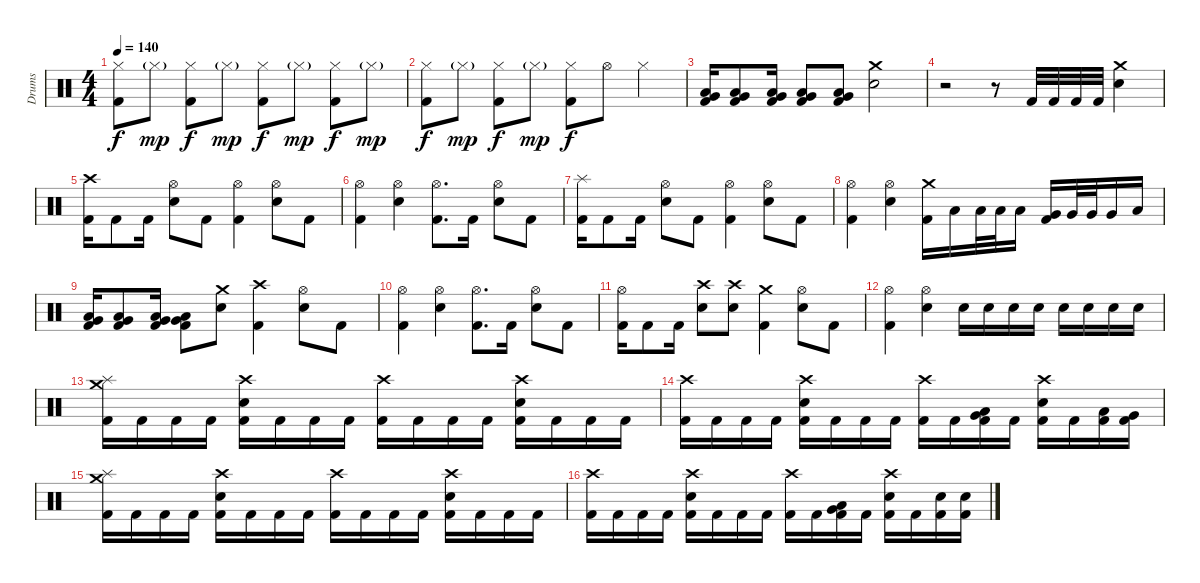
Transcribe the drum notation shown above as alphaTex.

\track ("Drums" "Drums") {instrument percussion}
\staff {score}
\articulation defaults
\ts (4 4)
\tempo 140
\clef neutral
\ks c
("Hi-Hat (closed)" "Kick (hit) 2").8{dy f} "Hi-Hat (closed)"{g}.8{dy mp} ("Hi-Hat (closed)" "Kick (hit) 2").8{dy f} "Hi-Hat (closed)"{g}.8{dy mp} ("Hi-Hat (closed)" "Kick (hit) 2").8{dy f} "Hi-Hat (closed)"{g}.8{dy mp} ("Hi-Hat (closed)" "Kick (hit) 2").8{dy f} "Hi-Hat (closed)"{g}.8{dy mp} |
("Hi-Hat (closed)" "Kick (hit) 2").8{dy f} "Hi-Hat (closed)"{g}.8{dy mp} ("Hi-Hat (closed)" "Kick (hit) 2").8{dy f} "Hi-Hat (closed)"{g}.8{dy mp} ("Hi-Hat (closed)" "Kick (hit) 2").8{dy f} "Hi-Hat (open)".8 "Hi-Hat (closed)".4 |
("Low Floor Tom (hit)" "Very Low Tom (hit)" "Kick (hit) 2").16 ("Low Floor Tom (hit)" "Very Low Tom (hit)" "Kick (hit) 2").8 ("Low Floor Tom (hit)" "Very Low Tom (hit)" "Kick (hit) 2").16 ("Low Floor Tom (hit)" "Very Low Tom (hit)" "Kick (hit) 2").8 ("Low Floor Tom (hit)" "Very Low Tom (hit)" "Kick (hit) 2").8 ("Crash medium (hit)" "Electric Snare (hit)").2 |
r.2 r.8 "Kick (hit) 2".32 "Kick (hit) 2".32 "Kick (hit) 2".32 "Kick (hit) 2".32 ("Crash medium (hit)" "Electric Snare (hit)").4 |
("Crash high (hit)" "Kick (hit) 2").16 "Kick (hit) 2".8 "Kick (hit) 2".16 ("Hi-Hat (open)" "Electric Snare (hit)").8 "Kick (hit) 2".8 ("Hi-Hat (open)" "Kick (hit) 2").4 ("Hi-Hat (open)" "Electric Snare (hit)").8 "Kick (hit) 2".8 |
("Hi-Hat (open)" "Kick (hit) 2").4 ("Hi-Hat (open)" "Electric Snare (hit)").4 ("Hi-Hat (open)" "Kick (hit) 2").8{d} "Kick (hit) 2".16 ("Hi-Hat (open)" "Electric Snare (hit)").8 "Kick (hit) 2".8 |
("Splash (hit)" "Kick (hit) 2").16 "Kick (hit) 2".8 "Kick (hit) 2".16 ("Hi-Hat (open)" "Electric Snare (hit)").8 "Kick (hit) 2".8 ("Hi-Hat (open)" "Kick (hit) 2").4 ("Hi-Hat (open)" "Electric Snare (hit)").8 "Kick (hit) 2".8 |
("Hi-Hat (open)" "Kick (hit) 2").4 ("Hi-Hat (open)" "Electric Snare (hit)").4 ("Crash medium (hit)" "Kick (hit) 2").16 "Low Tom (hit)".16 "Low Tom (hit)".32 "Low Tom (hit)".32 "Low Tom (hit)".16 ("Very Low Tom (hit)" "Kick (hit) 2").16 "Very Low Tom (hit)".32 "Very Low Tom (hit)".32 "Very Low Tom (hit)".16 "Low Floor Tom (hit)".16 |
("Low Floor Tom (hit)" "Very Low Tom (hit)" "Kick (hit) 2").16 ("Low Floor Tom (hit)" "Very Low Tom (hit)" "Kick (hit) 2").8 ("Low Floor Tom (hit)" "Very Low Tom (hit)" "Kick (hit) 2").16 ("Low Floor Tom (hit)" "Very Low Tom (hit)" "Kick (hit) 2").8 ("Crash medium (hit)" "Electric Snare (hit)").8 ("Crash high (hit)" "Kick (hit) 2").4 ("Hi-Hat (open)" "Electric Snare (hit)").8 "Kick (hit) 2".8 |
("Hi-Hat (open)" "Kick (hit) 2").4 ("Hi-Hat (open)" "Electric Snare (hit)").4 ("Hi-Hat (open)" "Kick (hit) 2").8{d} "Kick (hit) 2".16 ("Hi-Hat (open)" "Electric Snare (hit)").8 "Kick (hit) 2".8 |
("Hi-Hat (open)" "Kick (hit) 2").16 "Kick (hit) 2".8 "Kick (hit) 2".16 ("Crash high (hit)" "Electric Snare (hit)").8 ("Crash high (hit)" "Electric Snare (hit)").8 ("Crash medium (hit)" "Kick (hit) 2").4 ("Hi-Hat (open)" "Electric Snare (hit)").8 "Kick (hit) 2".8 |
("Hi-Hat (open)" "Kick (hit) 2").4 ("Hi-Hat (open)" "Electric Snare (hit)").4 "Electric Snare (hit)".16 "Electric Snare (hit)".16 "Electric Snare (hit)".16 "Electric Snare (hit)".16 "Electric Snare (hit)".16 "Electric Snare (hit)".16 "Electric Snare (hit)".16 "Electric Snare (hit)".16 |
("Crash medium (hit)" "Splash (hit)" "Kick (hit) 2").16 "Kick (hit) 2".16 "Kick (hit) 2".16 "Kick (hit) 2".16 ("Crash high (hit)" "Electric Snare (hit)" "Kick (hit) 2").16 "Kick (hit) 2".16 "Kick (hit) 2".16 "Kick (hit) 2".16 ("Crash high (hit)" "Kick (hit) 2").16 "Kick (hit) 2".16 "Kick (hit) 2".16 "Kick (hit) 2".16 ("Crash high (hit)" "Electric Snare (hit)" "Kick (hit) 2").16 "Kick (hit) 2".16 "Kick (hit) 2".16 "Kick (hit) 2".16 |
("Crash high (hit)" "Kick (hit) 2").16 "Kick (hit) 2".16 "Kick (hit) 2".16 "Kick (hit) 2".16 ("Crash high (hit)" "Electric Snare (hit)" "Kick (hit) 2").16 "Kick (hit) 2".16 "Kick (hit) 2".16 "Kick (hit) 2".16 ("Crash high (hit)" "Kick (hit) 2").16 "Kick (hit) 2".16 ("Very Low Tom (hit)" "Low Tom (hit)" "Kick (hit) 2").16 "Kick (hit) 2".16 ("Crash high (hit)" "Electric Snare (hit)" "Kick (hit) 2").16 "Kick (hit) 2".16 ("Low Tom (hit)" "Kick (hit) 2").16 ("Very Low Tom (hit)" "Kick (hit) 2").16 |
("Crash medium (hit)" "Splash (hit)" "Kick (hit) 2").16 "Kick (hit) 2".16 "Kick (hit) 2".16 "Kick (hit) 2".16 ("Crash high (hit)" "Electric Snare (hit)" "Kick (hit) 2").16 "Kick (hit) 2".16 "Kick (hit) 2".16 "Kick (hit) 2".16 ("Crash high (hit)" "Kick (hit) 2").16 "Kick (hit) 2".16 "Kick (hit) 2".16 "Kick (hit) 2".16 ("Crash high (hit)" "Electric Snare (hit)" "Kick (hit) 2").16 "Kick (hit) 2".16 "Kick (hit) 2".16 "Kick (hit) 2".16 |
("Crash high (hit)" "Kick (hit) 2").16 "Kick (hit) 2".16 "Kick (hit) 2".16 "Kick (hit) 2".16 ("Crash high (hit)" "Electric Snare (hit)" "Kick (hit) 2").16 "Kick (hit) 2".16 "Kick (hit) 2".16 "Kick (hit) 2".16 ("Crash high (hit)" "Kick (hit) 2").16 "Kick (hit) 2".16 ("Very Low Tom (hit)" "Low Tom (hit)" "Kick (hit) 2").16 "Kick (hit) 2".16 ("Crash high (hit)" "Electric Snare (hit)" "Kick (hit) 2").16 "Kick (hit) 2".16 ("Electric Snare (hit)" "Kick (hit) 2").16 ("Electric Snare (hit)" "Kick (hit) 2").16
